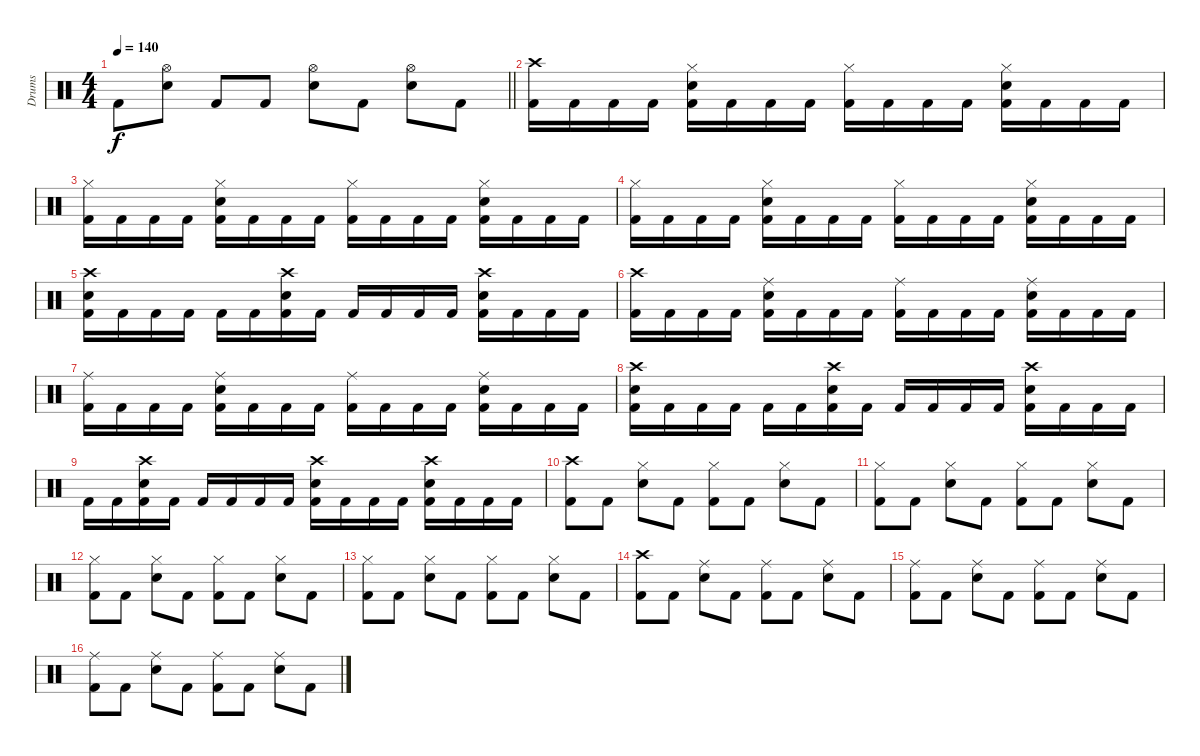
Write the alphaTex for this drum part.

\track ("Drums" "Drums") {instrument percussion}
\staff {score}
\articulation defaults
\ts (4 4)
\tempo 140
\clef neutral
\barLineRight lightlight
\ks c "Kick (hit) 2".8{dy f}
("Hi-Hat (open)" "Electric Snare (hit)").8 "Kick (hit) 2".8 "Kick (hit) 2".8 ("Hi-Hat (open)" "Electric Snare (hit)").8 "Kick (hit) 2".8 ("Hi-Hat (open)" "Electric Snare (hit)").8 "Kick (hit) 2".8 |
("Crash high (hit)" "Kick (hit) 2").16 "Kick (hit) 2".16 "Kick (hit) 2".16 "Kick (hit) 2".16 ("Hi-Hat (closed)" "Electric Snare (hit)" "Kick (hit) 2").16 "Kick (hit) 2".16 "Kick (hit) 2".16 "Kick (hit) 2".16 ("Hi-Hat (closed)" "Kick (hit) 2").16 "Kick (hit) 2".16 "Kick (hit) 2".16 "Kick (hit) 2".16 ("Hi-Hat (closed)" "Electric Snare (hit)" "Kick (hit) 2").16 "Kick (hit) 2".16 "Kick (hit) 2".16 "Kick (hit) 2".16 |
("Hi-Hat (closed)" "Kick (hit) 2").16 "Kick (hit) 2".16 "Kick (hit) 2".16 "Kick (hit) 2".16 ("Hi-Hat (closed)" "Electric Snare (hit)" "Kick (hit) 2").16 "Kick (hit) 2".16 "Kick (hit) 2".16 "Kick (hit) 2".16 ("Hi-Hat (closed)" "Kick (hit) 2").16 "Kick (hit) 2".16 "Kick (hit) 2".16 "Kick (hit) 2".16 ("Hi-Hat (closed)" "Electric Snare (hit)" "Kick (hit) 2").16 "Kick (hit) 2".16 "Kick (hit) 2".16 "Kick (hit) 2".16 |
("Hi-Hat (closed)" "Kick (hit) 2").16 "Kick (hit) 2".16 "Kick (hit) 2".16 "Kick (hit) 2".16 ("Hi-Hat (closed)" "Electric Snare (hit)" "Kick (hit) 2").16 "Kick (hit) 2".16 "Kick (hit) 2".16 "Kick (hit) 2".16 ("Hi-Hat (closed)" "Kick (hit) 2").16 "Kick (hit) 2".16 "Kick (hit) 2".16 "Kick (hit) 2".16 ("Hi-Hat (closed)" "Electric Snare (hit)" "Kick (hit) 2").16 "Kick (hit) 2".16 "Kick (hit) 2".16 "Kick (hit) 2".16 |
("Crash high (hit)" "Electric Snare (hit)" "Kick (hit) 2").16 "Kick (hit) 2".16 "Kick (hit) 2".16 "Kick (hit) 2".16 "Kick (hit) 2".16 "Kick (hit) 2".16 ("Crash high (hit)" "Electric Snare (hit)" "Kick (hit) 2").16 "Kick (hit) 2".16 "Kick (hit) 2".16 "Kick (hit) 2".16 "Kick (hit) 2".16 "Kick (hit) 2".16 ("Crash high (hit)" "Electric Snare (hit)" "Kick (hit) 2").16 "Kick (hit) 2".16 "Kick (hit) 2".16 "Kick (hit) 2".16 |
("Crash high (hit)" "Kick (hit) 2").16 "Kick (hit) 2".16 "Kick (hit) 2".16 "Kick (hit) 2".16 ("Ride (middle)" "Electric Snare (hit)" "Kick (hit) 2").16 "Kick (hit) 2".16 "Kick (hit) 2".16 "Kick (hit) 2".16 ("Ride (middle)" "Kick (hit) 2").16 "Kick (hit) 2".16 "Kick (hit) 2".16 "Kick (hit) 2".16 ("Ride (middle)" "Electric Snare (hit)" "Kick (hit) 2").16 "Kick (hit) 2".16 "Kick (hit) 2".16 "Kick (hit) 2".16 |
("Ride (middle)" "Kick (hit) 2").16 "Kick (hit) 2".16 "Kick (hit) 2".16 "Kick (hit) 2".16 ("Ride (middle)" "Electric Snare (hit)" "Kick (hit) 2").16 "Kick (hit) 2".16 "Kick (hit) 2".16 "Kick (hit) 2".16 ("Ride (middle)" "Kick (hit) 2").16 "Kick (hit) 2".16 "Kick (hit) 2".16 "Kick (hit) 2".16 ("Ride (middle)" "Electric Snare (hit)" "Kick (hit) 2").16 "Kick (hit) 2".16 "Kick (hit) 2".16 "Kick (hit) 2".16 |
("Crash high (hit)" "Electric Snare (hit)" "Kick (hit) 2").16 "Kick (hit) 2".16 "Kick (hit) 2".16 "Kick (hit) 2".16 "Kick (hit) 2".16 "Kick (hit) 2".16 ("Crash high (hit)" "Electric Snare (hit)" "Kick (hit) 2").16 "Kick (hit) 2".16 "Kick (hit) 2".16 "Kick (hit) 2".16 "Kick (hit) 2".16 "Kick (hit) 2".16 ("Crash high (hit)" "Electric Snare (hit)" "Kick (hit) 2").16 "Kick (hit) 2".16 "Kick (hit) 2".16 "Kick (hit) 2".16 |
"Kick (hit) 2".16 "Kick (hit) 2".16 ("Crash high (hit)" "Electric Snare (hit)" "Kick (hit) 2").16 "Kick (hit) 2".16 "Kick (hit) 2".16 "Kick (hit) 2".16 "Kick (hit) 2".16 "Kick (hit) 2".16 ("Crash high (hit)" "Electric Snare (hit)" "Kick (hit) 2").16 "Kick (hit) 2".16 "Kick (hit) 2".16 "Kick (hit) 2".16 ("Crash high (hit)" "Electric Snare (hit)" "Kick (hit) 2").16 "Kick (hit) 2".16 "Kick (hit) 2".16 "Kick (hit) 2".16 |
("Crash high (hit)" "Kick (hit) 2").8 "Kick (hit) 2".8 ("Hi-Hat (closed)" "Electric Snare (hit)").8 "Kick (hit) 2".8 ("Hi-Hat (closed)" "Kick (hit) 2").8 "Kick (hit) 2".8 ("Hi-Hat (closed)" "Electric Snare (hit)").8 "Kick (hit) 2".8 |
("Hi-Hat (closed)" "Kick (hit) 2").8 "Kick (hit) 2".8 ("Hi-Hat (closed)" "Electric Snare (hit)").8 "Kick (hit) 2".8 ("Hi-Hat (closed)" "Kick (hit) 2").8 "Kick (hit) 2".8 ("Hi-Hat (closed)" "Electric Snare (hit)").8 "Kick (hit) 2".8 |
("Hi-Hat (closed)" "Kick (hit) 2").8 "Kick (hit) 2".8 ("Hi-Hat (closed)" "Electric Snare (hit)").8 "Kick (hit) 2".8 ("Hi-Hat (closed)" "Kick (hit) 2").8 "Kick (hit) 2".8 ("Hi-Hat (closed)" "Electric Snare (hit)").8 "Kick (hit) 2".8 |
("Hi-Hat (closed)" "Kick (hit) 2").8 "Kick (hit) 2".8 ("Hi-Hat (closed)" "Electric Snare (hit)").8 "Kick (hit) 2".8 ("Hi-Hat (closed)" "Kick (hit) 2").8 "Kick (hit) 2".8 ("Hi-Hat (closed)" "Electric Snare (hit)").8 "Kick (hit) 2".8 |
("Crash high (hit)" "Kick (hit) 2").8 "Kick (hit) 2".8 ("Ride (middle)" "Electric Snare (hit)").8 "Kick (hit) 2".8 ("Ride (middle)" "Kick (hit) 2").8 "Kick (hit) 2".8 ("Ride (middle)" "Electric Snare (hit)").8 "Kick (hit) 2".8 |
("Ride (middle)" "Kick (hit) 2").8 "Kick (hit) 2".8 ("Ride (middle)" "Electric Snare (hit)").8 "Kick (hit) 2".8 ("Ride (middle)" "Kick (hit) 2").8 "Kick (hit) 2".8 ("Ride (middle)" "Electric Snare (hit)").8 "Kick (hit) 2".8 |
("Ride (middle)" "Kick (hit) 2").8 "Kick (hit) 2".8 ("Ride (middle)" "Electric Snare (hit)").8 "Kick (hit) 2".8 ("Ride (middle)" "Kick (hit) 2").8 "Kick (hit) 2".8 ("Ride (middle)" "Electric Snare (hit)").8 "Kick (hit) 2".8
